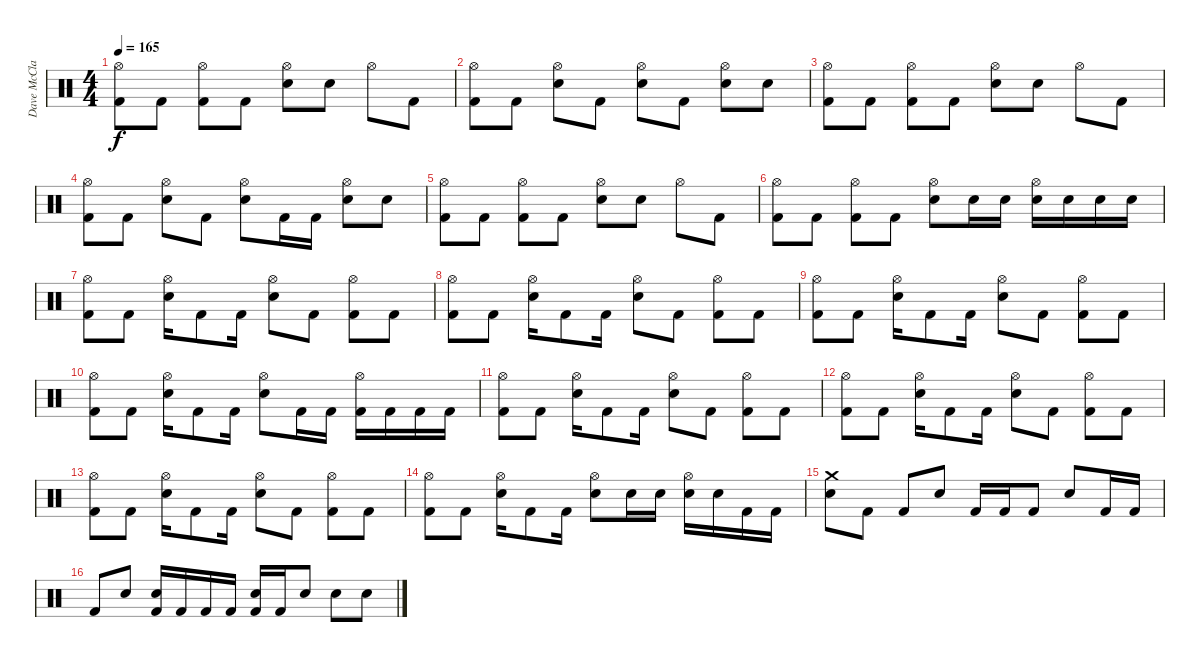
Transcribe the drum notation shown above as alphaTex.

\track ("Dave McClain" "Dave McCla") {instrument percussion}
\staff {score}
\articulation defaults
\ts (4 4)
\tempo 165
\clef neutral
\ks c
("Hi-Hat (open)" "Kick (hit) 2").8{dy f} "Kick (hit) 2".8 ("Hi-Hat (open)" "Kick (hit) 2").8 "Kick (hit) 2".8 ("Hi-Hat (open)" "Electric Snare (hit)").8 "Electric Snare (hit)".8 "Hi-Hat (open)".8 "Kick (hit) 2".8 |
("Hi-Hat (open)" "Kick (hit) 2").8 "Kick (hit) 2".8 ("Hi-Hat (open)" "Electric Snare (hit)").8 "Kick (hit) 2".8 ("Hi-Hat (open)" "Electric Snare (hit)").8 "Kick (hit) 2".8 ("Hi-Hat (open)" "Electric Snare (hit)").8 "Electric Snare (hit)".8 |
("Hi-Hat (open)" "Kick (hit) 2").8 "Kick (hit) 2".8 ("Hi-Hat (open)" "Kick (hit) 2").8 "Kick (hit) 2".8 ("Hi-Hat (open)" "Electric Snare (hit)").8 "Electric Snare (hit)".8 "Hi-Hat (open)".8 "Kick (hit) 2".8 |
("Hi-Hat (open)" "Kick (hit) 2").8 "Kick (hit) 2".8 ("Hi-Hat (open)" "Electric Snare (hit)").8 "Kick (hit) 2".8 ("Hi-Hat (open)" "Electric Snare (hit)").8 "Kick (hit) 2".16 "Kick (hit) 2".16 ("Hi-Hat (open)" "Electric Snare (hit)").8 "Electric Snare (hit)".8 |
("Hi-Hat (open)" "Kick (hit) 2").8 "Kick (hit) 2".8 ("Hi-Hat (open)" "Kick (hit) 2").8 "Kick (hit) 2".8 ("Hi-Hat (open)" "Electric Snare (hit)").8 "Electric Snare (hit)".8 "Hi-Hat (open)".8 "Kick (hit) 2".8 |
("Hi-Hat (open)" "Kick (hit) 2").8 "Kick (hit) 2".8 ("Hi-Hat (open)" "Kick (hit) 2").8 "Kick (hit) 2".8 ("Hi-Hat (open)" "Electric Snare (hit)").8 "Electric Snare (hit)".16 "Electric Snare (hit)".16 ("Hi-Hat (open)" "Electric Snare (hit)").16 "Electric Snare (hit)".16 "Electric Snare (hit)".16 "Electric Snare (hit)".16 |
("Hi-Hat (open)" "Kick (hit) 2").8 "Kick (hit) 2".8 ("Hi-Hat (open)" "Electric Snare (hit)").16 "Kick (hit) 2".8 "Kick (hit) 2".16 ("Hi-Hat (open)" "Electric Snare (hit)").8 "Kick (hit) 2".8 ("Hi-Hat (open)" "Kick (hit) 2").8 "Kick (hit) 2".8 |
("Hi-Hat (open)" "Kick (hit) 2").8 "Kick (hit) 2".8 ("Hi-Hat (open)" "Electric Snare (hit)").16 "Kick (hit) 2".8 "Kick (hit) 2".16 ("Hi-Hat (open)" "Electric Snare (hit)").8 "Kick (hit) 2".8 ("Hi-Hat (open)" "Kick (hit) 2").8 "Kick (hit) 2".8 |
("Hi-Hat (open)" "Kick (hit) 2").8 "Kick (hit) 2".8 ("Hi-Hat (open)" "Electric Snare (hit)").16 "Kick (hit) 2".8 "Kick (hit) 2".16 ("Hi-Hat (open)" "Electric Snare (hit)").8 "Kick (hit) 2".8 ("Hi-Hat (open)" "Kick (hit) 2").8 "Kick (hit) 2".8 |
("Hi-Hat (open)" "Kick (hit) 2").8 "Kick (hit) 2".8 ("Hi-Hat (open)" "Electric Snare (hit)").16 "Kick (hit) 2".8 "Kick (hit) 2".16 ("Hi-Hat (open)" "Electric Snare (hit)").8 "Kick (hit) 2".16 "Kick (hit) 2".16 ("Hi-Hat (open)" "Kick (hit) 2").16 "Kick (hit) 2".16 "Kick (hit) 2".16 "Kick (hit) 2".16 |
("Hi-Hat (open)" "Kick (hit) 2").8 "Kick (hit) 2".8 ("Hi-Hat (open)" "Electric Snare (hit)").16 "Kick (hit) 2".8 "Kick (hit) 2".16 ("Hi-Hat (open)" "Electric Snare (hit)").8 "Kick (hit) 2".8 ("Hi-Hat (open)" "Kick (hit) 2").8 "Kick (hit) 2".8 |
("Hi-Hat (open)" "Kick (hit) 2").8 "Kick (hit) 2".8 ("Hi-Hat (open)" "Electric Snare (hit)").16 "Kick (hit) 2".8 "Kick (hit) 2".16 ("Hi-Hat (open)" "Electric Snare (hit)").8 "Kick (hit) 2".8 ("Hi-Hat (open)" "Kick (hit) 2").8 "Kick (hit) 2".8 |
("Hi-Hat (open)" "Kick (hit) 2").8 "Kick (hit) 2".8 ("Hi-Hat (open)" "Electric Snare (hit)").16 "Kick (hit) 2".8 "Kick (hit) 2".16 ("Hi-Hat (open)" "Electric Snare (hit)").8 "Kick (hit) 2".8 ("Hi-Hat (open)" "Kick (hit) 2").8 "Kick (hit) 2".8 |
("Hi-Hat (open)" "Kick (hit) 2").8 "Kick (hit) 2".8 ("Hi-Hat (open)" "Electric Snare (hit)").16 "Kick (hit) 2".8 "Kick (hit) 2".16 ("Hi-Hat (open)" "Electric Snare (hit)").8 "Electric Snare (hit)".16 "Electric Snare (hit)".16 ("Hi-Hat (open)" "Electric Snare (hit)").16 "Electric Snare (hit)".16 "Kick (hit) 2".16 "Kick (hit) 2".16 |
("Crash medium (hit)" "Electric Snare (hit)").8 "Kick (hit) 2".8 "Kick (hit) 2".8 "Electric Snare (hit)".8 "Kick (hit) 2".16 "Kick (hit) 2".16 "Kick (hit) 2".8 "Electric Snare (hit)".8 "Kick (hit) 2".16 "Kick (hit) 2".16 |
"Kick (hit) 2".8 "Electric Snare (hit)".8 ("Electric Snare (hit)" "Kick (hit) 2").16 "Kick (hit) 2".16 "Kick (hit) 2".16 "Kick (hit) 2".16 ("Electric Snare (hit)" "Kick (hit) 2").16 "Kick (hit) 2".16 "Electric Snare (hit)".8 "Electric Snare (hit)".8 "Electric Snare (hit)".8
